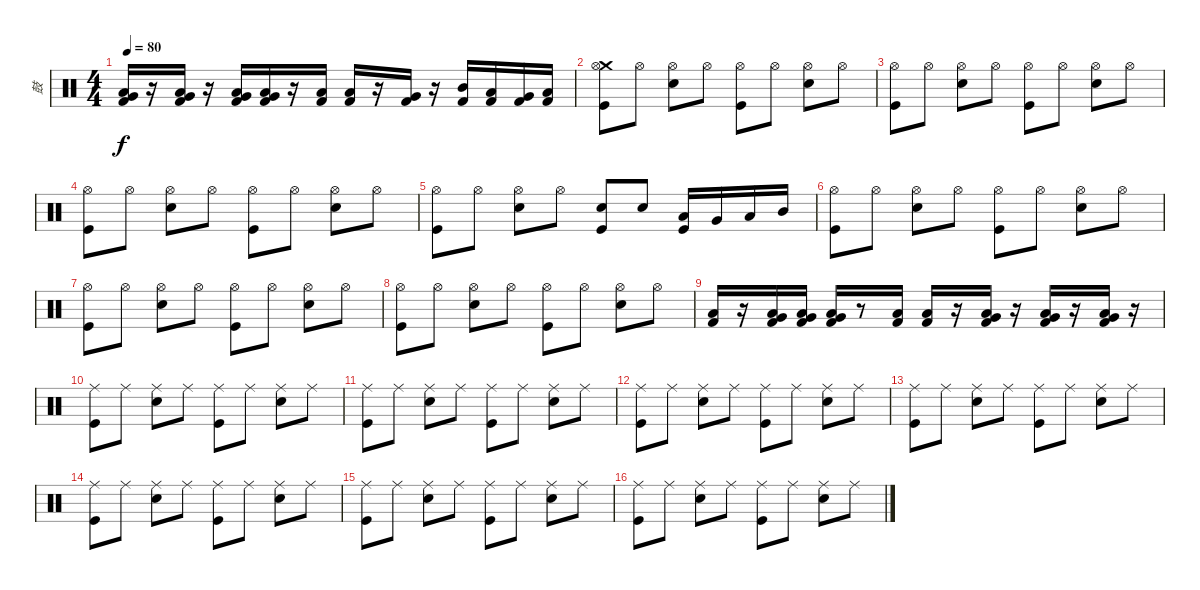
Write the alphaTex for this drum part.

\track ("鼓" "鼓") {instrument percussion}
\staff {score}
\articulation defaults
\ts (4 4)
\tempo 80
\clef neutral
\ks c
("Very Low Tom (hit)" "Low Floor Tom (hit)" "Kick (hit) 2").16{dy f} r.16 ("Low Tom (hit)" "Very Low Tom (hit)" "Kick (hit) 2").16 r.16 ("Very Low Tom (hit)" "Low Tom (hit)" "Kick (hit) 2").16 ("Low Tom (hit)" "Very Low Tom (hit)" "Kick (hit) 2").16 r.16 ("Low Floor Tom (hit)" "Kick (hit) 2").16 ("Low Floor Tom (hit)" "Kick (hit) 2").16 r.16 ("Very Low Tom (hit)" "Kick (hit) 2").16 r.16 ("Mid Tom (hit)" "Kick (hit) 2").16 ("Low Tom (hit)" "Kick (hit) 2").16 ("Very Low Tom (hit)" "Kick (hit) 2").16 ("Low Floor Tom (hit)" "Kick (hit) 2").16 |
("Crash medium (hit)" "Hi-Hat (open)" "Kick (hit)").8 "Hi-Hat (open)".8 ("Snare (hit) 2" "Hi-Hat (open)").8 "Hi-Hat (open)".8 ("Hi-Hat (open)" "Kick (hit)").8 "Hi-Hat (open)".8 ("Snare (hit) 2" "Hi-Hat (open)").8 "Hi-Hat (open)".8 |
("Hi-Hat (open)" "Kick (hit)").8 "Hi-Hat (open)".8 ("Snare (hit) 2" "Hi-Hat (open)").8 "Hi-Hat (open)".8 ("Hi-Hat (open)" "Kick (hit)").8 "Hi-Hat (open)".8 ("Snare (hit) 2" "Hi-Hat (open)").8 "Hi-Hat (open)".8 |
("Hi-Hat (open)" "Kick (hit)").8 "Hi-Hat (open)".8 ("Snare (hit) 2" "Hi-Hat (open)").8 "Hi-Hat (open)".8 ("Hi-Hat (open)" "Kick (hit)").8 "Hi-Hat (open)".8 ("Snare (hit) 2" "Hi-Hat (open)").8 "Hi-Hat (open)".8 |
("Hi-Hat (open)" "Kick (hit)").8 "Hi-Hat (open)".8 ("Snare (hit) 2" "Hi-Hat (open)").8 "Hi-Hat (open)".8 ("Electric Snare (hit)" "Kick (hit)").8 "Electric Snare (hit)".8 ("Kick (hit)" "Low Floor Tom (hit)").16 "Very Low Tom (hit)".16 "Low Tom (hit)".16 "Mid Tom (hit)".16 |
("Hi-Hat (open)" "Kick (hit)").8 "Hi-Hat (open)".8 ("Snare (hit) 2" "Hi-Hat (open)").8 "Hi-Hat (open)".8 ("Hi-Hat (open)" "Kick (hit)").8 "Hi-Hat (open)".8 ("Snare (hit) 2" "Hi-Hat (open)").8 "Hi-Hat (open)".8 |
("Hi-Hat (open)" "Kick (hit)").8 "Hi-Hat (open)".8 ("Snare (hit) 2" "Hi-Hat (open)").8 "Hi-Hat (open)".8 ("Hi-Hat (open)" "Kick (hit)").8 "Hi-Hat (open)".8 ("Snare (hit) 2" "Hi-Hat (open)").8 "Hi-Hat (open)".8 |
("Hi-Hat (open)" "Kick (hit)").8 "Hi-Hat (open)".8 ("Snare (hit) 2" "Hi-Hat (open)").8 "Hi-Hat (open)".8 ("Hi-Hat (open)" "Kick (hit)").8 "Hi-Hat (open)".8 ("Snare (hit) 2" "Hi-Hat (open)").8 "Hi-Hat (open)".8 |
("Low Floor Tom (hit)" "Kick (hit) 2").16 r.16 ("Very Low Tom (hit)" "Low Floor Tom (hit)" "Kick (hit) 2").16 ("Very Low Tom (hit)" "Low Floor Tom (hit)" "Kick (hit) 2").16 ("Very Low Tom (hit)" "Low Floor Tom (hit)" "Kick (hit) 2").16 r.8 ("Low Floor Tom (hit)" "Kick (hit) 2").16 ("Low Floor Tom (hit)" "Kick (hit) 2").16 r.16 ("Very Low Tom (hit)" "Low Floor Tom (hit)" "Kick (hit) 2").16 r.16 ("Low Tom (hit)" "Very Low Tom (hit)" "Kick (hit) 2").16 r.16 ("Low Tom (hit)" "Very Low Tom (hit)" "Kick (hit) 2").16 r.16 |
("Ride (middle)" "Kick (hit)").8 "Ride (middle)".8 ("Ride (middle)" "Snare (hit) 2").8 "Ride (middle)".8 ("Ride (middle)" "Kick (hit)").8 "Ride (middle)".8 ("Ride (middle)" "Snare (hit) 2").8 "Ride (middle)".8 |
("Ride (middle)" "Kick (hit)").8 "Ride (middle)".8 ("Ride (middle)" "Snare (hit) 2").8 "Ride (middle)".8 ("Ride (middle)" "Kick (hit)").8 "Ride (middle)".8 ("Ride (middle)" "Snare (hit) 2").8 "Ride (middle)".8 |
("Ride (middle)" "Kick (hit)").8 "Ride (middle)".8 ("Ride (middle)" "Snare (hit) 2").8 "Ride (middle)".8 ("Ride (middle)" "Kick (hit)").8 "Ride (middle)".8 ("Ride (middle)" "Snare (hit) 2").8 "Ride (middle)".8 |
("Ride (middle)" "Kick (hit)").8 "Ride (middle)".8 ("Ride (middle)" "Snare (hit) 2").8 "Ride (middle)".8 ("Ride (middle)" "Kick (hit)").8 "Ride (middle)".8 ("Ride (middle)" "Snare (hit) 2").8 "Ride (middle)".8 |
("Ride (middle)" "Kick (hit)").8 "Ride (middle)".8 ("Ride (middle)" "Snare (hit) 2").8 "Ride (middle)".8 ("Ride (middle)" "Kick (hit)").8 "Ride (middle)".8 ("Ride (middle)" "Snare (hit) 2").8 "Ride (middle)".8 |
("Ride (middle)" "Kick (hit)").8 "Ride (middle)".8 ("Ride (middle)" "Snare (hit) 2").8 "Ride (middle)".8 ("Ride (middle)" "Kick (hit)").8 "Ride (middle)".8 ("Ride (middle)" "Snare (hit) 2").8 "Ride (middle)".8 |
("Ride (middle)" "Kick (hit)").8 "Ride (middle)".8 ("Ride (middle)" "Snare (hit) 2").8 "Ride (middle)".8 ("Ride (middle)" "Kick (hit)").8 "Ride (middle)".8 ("Ride (middle)" "Snare (hit) 2").8 "Ride (middle)".8
